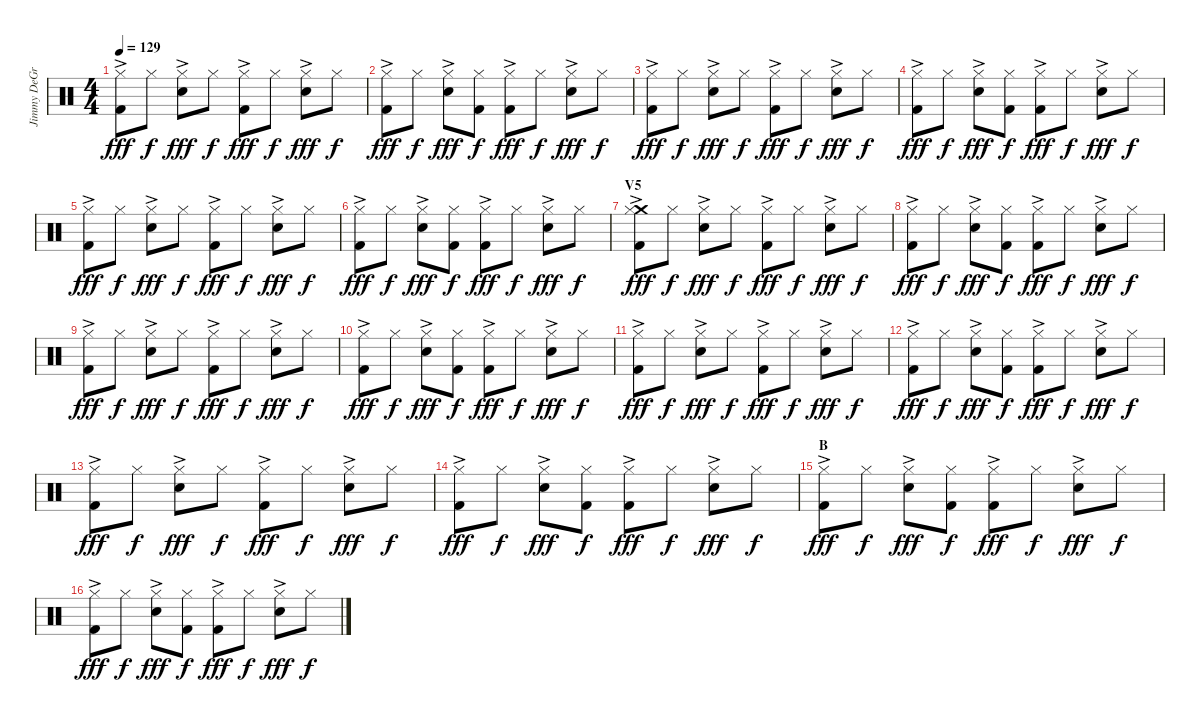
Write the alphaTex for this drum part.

\track ("Jimmy DeGrasso (Drums)" "Jimmy DeGr") {instrument percussion}
\staff {score}
\articulation defaults
\ts (4 4)
\tempo 129
\clef neutral
\ks c
("Hi-Hat (closed)"{ac} "Kick (hit) 2").8{dy fff} "Hi-Hat (closed)".8{dy f} ("Hi-Hat (closed)"{ac} "Electric Snare (hit)").8{dy fff} "Hi-Hat (closed)".8{dy f} ("Hi-Hat (closed)"{ac} "Kick (hit) 2").8{dy fff} "Hi-Hat (closed)".8{dy f} ("Hi-Hat (closed)"{ac} "Electric Snare (hit)").8{dy fff} "Hi-Hat (closed)".8{dy f} |
("Hi-Hat (closed)"{ac} "Kick (hit) 2").8{dy fff} "Hi-Hat (closed)".8{dy f} ("Hi-Hat (closed)"{ac} "Electric Snare (hit)").8{dy fff} ("Hi-Hat (closed)" "Kick (hit) 2").8{dy f} ("Hi-Hat (closed)"{ac} "Kick (hit) 2").8{dy fff} "Hi-Hat (closed)".8{dy f} ("Hi-Hat (closed)"{ac} "Electric Snare (hit)").8{dy fff} "Hi-Hat (closed)".8{dy f} |
("Hi-Hat (closed)"{ac} "Kick (hit) 2").8{dy fff} "Hi-Hat (closed)".8{dy f} ("Hi-Hat (closed)"{ac} "Electric Snare (hit)").8{dy fff} "Hi-Hat (closed)".8{dy f} ("Hi-Hat (closed)"{ac} "Kick (hit) 2").8{dy fff} "Hi-Hat (closed)".8{dy f} ("Hi-Hat (closed)"{ac} "Electric Snare (hit)").8{dy fff} "Hi-Hat (closed)".8{dy f} |
("Hi-Hat (closed)"{ac} "Kick (hit) 2").8{dy fff} "Hi-Hat (closed)".8{dy f} ("Hi-Hat (closed)"{ac} "Electric Snare (hit)").8{dy fff} ("Hi-Hat (closed)" "Kick (hit) 2").8{dy f} ("Hi-Hat (closed)"{ac} "Kick (hit) 2").8{dy fff} "Hi-Hat (closed)".8{dy f} ("Hi-Hat (closed)"{ac} "Electric Snare (hit)").8{dy fff} "Hi-Hat (closed)".8{dy f} |
("Hi-Hat (closed)"{ac} "Kick (hit) 2").8{dy fff} "Hi-Hat (closed)".8{dy f} ("Hi-Hat (closed)"{ac} "Electric Snare (hit)").8{dy fff} "Hi-Hat (closed)".8{dy f} ("Hi-Hat (closed)"{ac} "Kick (hit) 2").8{dy fff} "Hi-Hat (closed)".8{dy f} ("Hi-Hat (closed)"{ac} "Electric Snare (hit)").8{dy fff} "Hi-Hat (closed)".8{dy f} |
("Hi-Hat (closed)"{ac} "Kick (hit) 2").8{dy fff} "Hi-Hat (closed)".8{dy f} ("Hi-Hat (closed)"{ac} "Electric Snare (hit)").8{dy fff} ("Hi-Hat (closed)" "Kick (hit) 2").8{dy f} ("Hi-Hat (closed)"{ac} "Kick (hit) 2").8{dy fff} "Hi-Hat (closed)".8{dy f} ("Hi-Hat (closed)"{ac} "Electric Snare (hit)").8{dy fff} "Hi-Hat (closed)".8{dy f} |
\section ("" "V5")
("Crash medium (hit)" "Hi-Hat (closed)"{ac} "Kick (hit) 2").8{dy fff} "Hi-Hat (closed)".8{dy f} ("Hi-Hat (closed)"{ac} "Electric Snare (hit)").8{dy fff} "Hi-Hat (closed)".8{dy f} ("Hi-Hat (closed)"{ac} "Kick (hit) 2").8{dy fff} "Hi-Hat (closed)".8{dy f} ("Hi-Hat (closed)"{ac} "Electric Snare (hit)").8{dy fff} "Hi-Hat (closed)".8{dy f} |
("Hi-Hat (closed)"{ac} "Kick (hit) 2").8{dy fff} "Hi-Hat (closed)".8{dy f} ("Hi-Hat (closed)"{ac} "Electric Snare (hit)").8{dy fff} ("Hi-Hat (closed)" "Kick (hit) 2").8{dy f} ("Hi-Hat (closed)"{ac} "Kick (hit) 2").8{dy fff} "Hi-Hat (closed)".8{dy f} ("Hi-Hat (closed)"{ac} "Electric Snare (hit)").8{dy fff} "Hi-Hat (closed)".8{dy f} |
("Hi-Hat (closed)"{ac} "Kick (hit) 2").8{dy fff} "Hi-Hat (closed)".8{dy f} ("Hi-Hat (closed)"{ac} "Electric Snare (hit)").8{dy fff} "Hi-Hat (closed)".8{dy f} ("Hi-Hat (closed)"{ac} "Kick (hit) 2").8{dy fff} "Hi-Hat (closed)".8{dy f} ("Hi-Hat (closed)"{ac} "Electric Snare (hit)").8{dy fff} "Hi-Hat (closed)".8{dy f} |
("Hi-Hat (closed)"{ac} "Kick (hit) 2").8{dy fff} "Hi-Hat (closed)".8{dy f} ("Hi-Hat (closed)"{ac} "Electric Snare (hit)").8{dy fff} ("Hi-Hat (closed)" "Kick (hit) 2").8{dy f} ("Hi-Hat (closed)"{ac} "Kick (hit) 2").8{dy fff} "Hi-Hat (closed)".8{dy f} ("Hi-Hat (closed)"{ac} "Electric Snare (hit)").8{dy fff} "Hi-Hat (closed)".8{dy f} |
("Hi-Hat (closed)"{ac} "Kick (hit) 2").8{dy fff} "Hi-Hat (closed)".8{dy f} ("Hi-Hat (closed)"{ac} "Electric Snare (hit)").8{dy fff} "Hi-Hat (closed)".8{dy f} ("Hi-Hat (closed)"{ac} "Kick (hit) 2").8{dy fff} "Hi-Hat (closed)".8{dy f} ("Hi-Hat (closed)"{ac} "Electric Snare (hit)").8{dy fff} "Hi-Hat (closed)".8{dy f} |
("Hi-Hat (closed)"{ac} "Kick (hit) 2").8{dy fff} "Hi-Hat (closed)".8{dy f} ("Hi-Hat (closed)"{ac} "Electric Snare (hit)").8{dy fff} ("Hi-Hat (closed)" "Kick (hit) 2").8{dy f} ("Hi-Hat (closed)"{ac} "Kick (hit) 2").8{dy fff} "Hi-Hat (closed)".8{dy f} ("Hi-Hat (closed)"{ac} "Electric Snare (hit)").8{dy fff} "Hi-Hat (closed)".8{dy f} |
("Hi-Hat (closed)"{ac} "Kick (hit) 2").8{dy fff} "Hi-Hat (closed)".8{dy f} ("Hi-Hat (closed)"{ac} "Electric Snare (hit)").8{dy fff} "Hi-Hat (closed)".8{dy f} ("Hi-Hat (closed)"{ac} "Kick (hit) 2").8{dy fff} "Hi-Hat (closed)".8{dy f} ("Hi-Hat (closed)"{ac} "Electric Snare (hit)").8{dy fff} "Hi-Hat (closed)".8{dy f} |
("Hi-Hat (closed)"{ac} "Kick (hit) 2").8{dy fff} "Hi-Hat (closed)".8{dy f} ("Hi-Hat (closed)"{ac} "Electric Snare (hit)").8{dy fff} ("Hi-Hat (closed)" "Kick (hit) 2").8{dy f} ("Hi-Hat (closed)"{ac} "Kick (hit) 2").8{dy fff} "Hi-Hat (closed)".8{dy f} ("Hi-Hat (closed)"{ac} "Electric Snare (hit)").8{dy fff} "Hi-Hat (closed)".8{dy f} |
\section ("" "B")
("Hi-Hat (closed)"{ac} "Kick (hit) 2").8{dy fff} "Hi-Hat (closed)".8{dy f} ("Hi-Hat (closed)"{ac} "Electric Snare (hit)").8{dy fff} ("Hi-Hat (closed)" "Kick (hit) 2").8{dy f} ("Hi-Hat (closed)"{ac} "Kick (hit) 2").8{dy fff} "Hi-Hat (closed)".8{dy f} ("Hi-Hat (closed)"{ac} "Electric Snare (hit)").8{dy fff} "Hi-Hat (closed)".8{dy f} |
("Hi-Hat (closed)"{ac} "Kick (hit) 2").8{dy fff} "Hi-Hat (closed)".8{dy f} ("Hi-Hat (closed)"{ac} "Electric Snare (hit)").8{dy fff} ("Hi-Hat (closed)" "Kick (hit) 2").8{dy f} ("Hi-Hat (closed)"{ac} "Kick (hit) 2").8{dy fff} "Hi-Hat (closed)".8{dy f} ("Hi-Hat (closed)"{ac} "Electric Snare (hit)").8{dy fff} "Hi-Hat (closed)".8{dy f}
